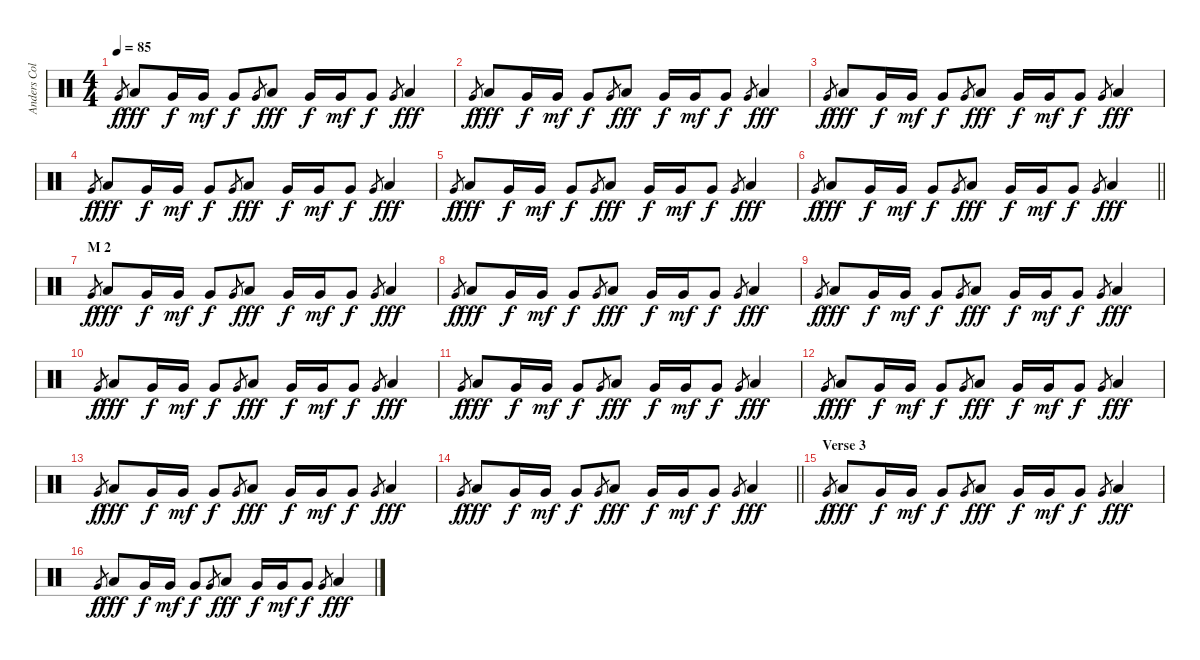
\track ("Anders Colsefni" "Anders Col") {instrument percussion}
\staff {score}
\articulation defaults
\ts (4 4)
\tempo 85
\clef neutral
\ks c "Very Low Tom (hit)".8{gr dy f} "Low Tom (hit)".8{dy fff} "Very Low Tom (hit)".16{dy f} "Very Low Tom (hit)".16{dy mf} "Very Low Tom (hit)".8{dy f} "Very Low Tom (hit)".8{gr} "Low Tom (hit)".8{dy fff} "Very Low Tom (hit)".16{dy f} "Very Low Tom (hit)".16{dy mf} "Very Low Tom (hit)".8{dy f} "Very Low Tom (hit)".8{gr} "Low Tom (hit)".4{dy fff}
|
"Very Low Tom (hit)".8{gr dy f} "Low Tom (hit)".8{dy fff} "Very Low Tom (hit)".16{dy f} "Very Low Tom (hit)".16{dy mf} "Very Low Tom (hit)".8{dy f} "Very Low Tom (hit)".8{gr} "Low Tom (hit)".8{dy fff} "Very Low Tom (hit)".16{dy f} "Very Low Tom (hit)".16{dy mf} "Very Low Tom (hit)".8{dy f} "Very Low Tom (hit)".8{gr} "Low Tom (hit)".4{dy fff} |
"Very Low Tom (hit)".8{gr dy f} "Low Tom (hit)".8{dy fff} "Very Low Tom (hit)".16{dy f} "Very Low Tom (hit)".16{dy mf} "Very Low Tom (hit)".8{dy f} "Very Low Tom (hit)".8{gr} "Low Tom (hit)".8{dy fff} "Very Low Tom (hit)".16{dy f} "Very Low Tom (hit)".16{dy mf} "Very Low Tom (hit)".8{dy f} "Very Low Tom (hit)".8{gr} "Low Tom (hit)".4{dy fff} |
"Very Low Tom (hit)".8{gr dy f} "Low Tom (hit)".8{dy fff} "Very Low Tom (hit)".16{dy f} "Very Low Tom (hit)".16{dy mf} "Very Low Tom (hit)".8{dy f} "Very Low Tom (hit)".8{gr} "Low Tom (hit)".8{dy fff} "Very Low Tom (hit)".16{dy f} "Very Low Tom (hit)".16{dy mf} "Very Low Tom (hit)".8{dy f} "Very Low Tom (hit)".8{gr} "Low Tom (hit)".4{dy fff} |
"Very Low Tom (hit)".8{gr dy f} "Low Tom (hit)".8{dy fff} "Very Low Tom (hit)".16{dy f} "Very Low Tom (hit)".16{dy mf} "Very Low Tom (hit)".8{dy f} "Very Low Tom (hit)".8{gr} "Low Tom (hit)".8{dy fff} "Very Low Tom (hit)".16{dy f} "Very Low Tom (hit)".16{dy mf} "Very Low Tom (hit)".8{dy f} "Very Low Tom (hit)".8{gr} "Low Tom (hit)".4{dy fff} |
\barLineRight lightlight "Very Low Tom (hit)".8{gr dy f} "Low Tom (hit)".8{dy fff} "Very Low Tom (hit)".16{dy f} "Very Low Tom (hit)".16{dy mf} "Very Low Tom (hit)".8{dy f} "Very Low Tom (hit)".8{gr} "Low Tom (hit)".8{dy fff} "Very Low Tom (hit)".16{dy f} "Very Low Tom (hit)".16{dy mf} "Very Low Tom (hit)".8{dy f} "Very Low Tom (hit)".8{gr} "Low Tom (hit)".4{dy fff}
|
\section ("" "M 2")
"Very Low Tom (hit)".8{gr dy f} "Low Tom (hit)".8{dy fff} "Very Low Tom (hit)".16{dy f} "Very Low Tom (hit)".16{dy mf} "Very Low Tom (hit)".8{dy f} "Very Low Tom (hit)".8{gr} "Low Tom (hit)".8{dy fff} "Very Low Tom (hit)".16{dy f} "Very Low Tom (hit)".16{dy mf} "Very Low Tom (hit)".8{dy f} "Very Low Tom (hit)".8{gr} "Low Tom (hit)".4{dy fff} |
"Very Low Tom (hit)".8{gr dy f} "Low Tom (hit)".8{dy fff} "Very Low Tom (hit)".16{dy f} "Very Low Tom (hit)".16{dy mf} "Very Low Tom (hit)".8{dy f} "Very Low Tom (hit)".8{gr} "Low Tom (hit)".8{dy fff} "Very Low Tom (hit)".16{dy f} "Very Low Tom (hit)".16{dy mf} "Very Low Tom (hit)".8{dy f} "Very Low Tom (hit)".8{gr} "Low Tom (hit)".4{dy fff} |
"Very Low Tom (hit)".8{gr dy f} "Low Tom (hit)".8{dy fff} "Very Low Tom (hit)".16{dy f} "Very Low Tom (hit)".16{dy mf} "Very Low Tom (hit)".8{dy f} "Very Low Tom (hit)".8{gr} "Low Tom (hit)".8{dy fff} "Very Low Tom (hit)".16{dy f} "Very Low Tom (hit)".16{dy mf} "Very Low Tom (hit)".8{dy f} "Very Low Tom (hit)".8{gr} "Low Tom (hit)".4{dy fff} |
"Very Low Tom (hit)".8{gr dy f} "Low Tom (hit)".8{dy fff} "Very Low Tom (hit)".16{dy f} "Very Low Tom (hit)".16{dy mf} "Very Low Tom (hit)".8{dy f} "Very Low Tom (hit)".8{gr} "Low Tom (hit)".8{dy fff} "Very Low Tom (hit)".16{dy f} "Very Low Tom (hit)".16{dy mf} "Very Low Tom (hit)".8{dy f} "Very Low Tom (hit)".8{gr} "Low Tom (hit)".4{dy fff} |
"Very Low Tom (hit)".8{gr dy f} "Low Tom (hit)".8{dy fff} "Very Low Tom (hit)".16{dy f} "Very Low Tom (hit)".16{dy mf} "Very Low Tom (hit)".8{dy f} "Very Low Tom (hit)".8{gr} "Low Tom (hit)".8{dy fff} "Very Low Tom (hit)".16{dy f} "Very Low Tom (hit)".16{dy mf} "Very Low Tom (hit)".8{dy f} "Very Low Tom (hit)".8{gr} "Low Tom (hit)".4{dy fff} |
"Very Low Tom (hit)".8{gr dy f} "Low Tom (hit)".8{dy fff} "Very Low Tom (hit)".16{dy f} "Very Low Tom (hit)".16{dy mf} "Very Low Tom (hit)".8{dy f} "Very Low Tom (hit)".8{gr} "Low Tom (hit)".8{dy fff} "Very Low Tom (hit)".16{dy f} "Very Low Tom (hit)".16{dy mf} "Very Low Tom (hit)".8{dy f} "Very Low Tom (hit)".8{gr} "Low Tom (hit)".4{dy fff} |
"Very Low Tom (hit)".8{gr dy f} "Low Tom (hit)".8{dy fff} "Very Low Tom (hit)".16{dy f} "Very Low Tom (hit)".16{dy mf} "Very Low Tom (hit)".8{dy f} "Very Low Tom (hit)".8{gr} "Low Tom (hit)".8{dy fff} "Very Low Tom (hit)".16{dy f} "Very Low Tom (hit)".16{dy mf} "Very Low Tom (hit)".8{dy f} "Very Low Tom (hit)".8{gr} "Low Tom (hit)".4{dy fff} |
\barLineRight lightlight "Very Low Tom (hit)".8{gr dy f} "Low Tom (hit)".8{dy fff} "Very Low Tom (hit)".16{dy f} "Very Low Tom (hit)".16{dy mf} "Very Low Tom (hit)".8{dy f} "Very Low Tom (hit)".8{gr} "Low Tom (hit)".8{dy fff} "Very Low Tom (hit)".16{dy f} "Very Low Tom (hit)".16{dy mf} "Very Low Tom (hit)".8{dy f} "Very Low Tom (hit)".8{gr} "Low Tom (hit)".4{dy fff}
|
\section ("" "Verse 3")
"Very Low Tom (hit)".8{gr dy f} "Low Tom (hit)".8{dy fff} "Very Low Tom (hit)".16{dy f} "Very Low Tom (hit)".16{dy mf} "Very Low Tom (hit)".8{dy f} "Very Low Tom (hit)".8{gr} "Low Tom (hit)".8{dy fff} "Very Low Tom (hit)".16{dy f} "Very Low Tom (hit)".16{dy mf} "Very Low Tom (hit)".8{dy f} "Very Low Tom (hit)".8{gr} "Low Tom (hit)".4{dy fff} |
"Very Low Tom (hit)".8{gr dy f} "Low Tom (hit)".8{dy fff} "Very Low Tom (hit)".16{dy f} "Very Low Tom (hit)".16{dy mf} "Very Low Tom (hit)".8{dy f} "Very Low Tom (hit)".8{gr} "Low Tom (hit)".8{dy fff} "Very Low Tom (hit)".16{dy f} "Very Low Tom (hit)".16{dy mf} "Very Low Tom (hit)".8{dy f} "Very Low Tom (hit)".8{gr} "Low Tom (hit)".4{dy fff}
